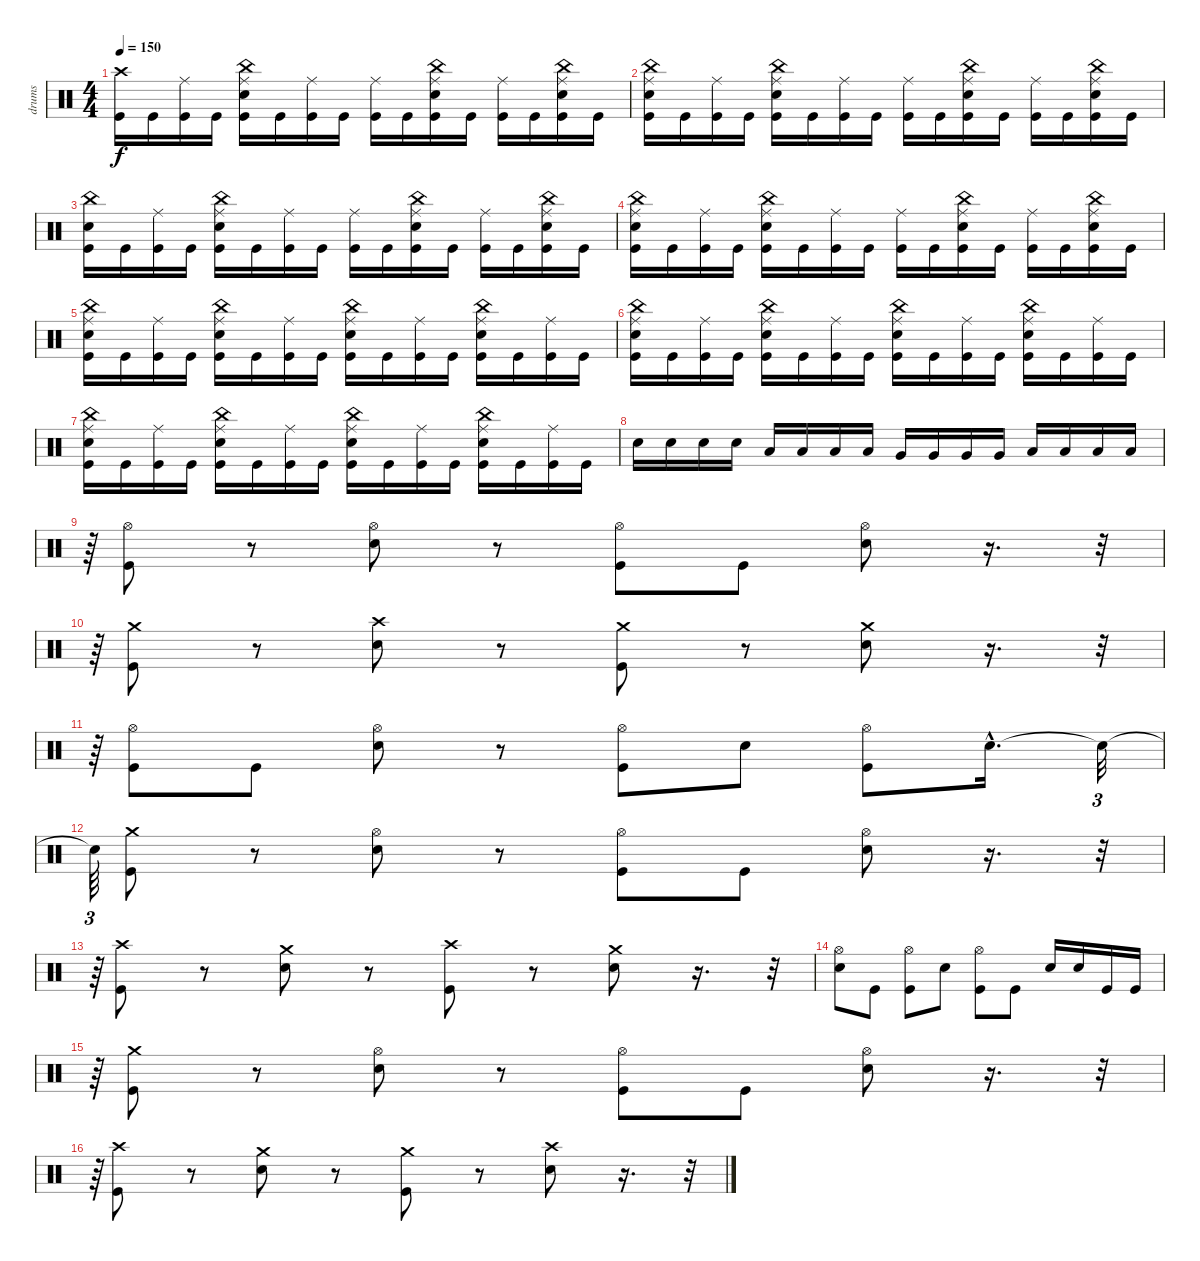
\track ("drums" "drums") {instrument percussion}
\staff {score}
\articulation defaults
\ts (4 4)
\tempo 150
\clef neutral
\ks c
("Crash high (hit)" "Kick (hit)").16{dy f} "Kick (hit)".16 ("Ride (middle)" "Kick (hit)").16 "Kick (hit)".16 ("Snare (hit) 2" "China (hit)" "Ride (middle)" "Kick (hit)").16 "Kick (hit)".16 ("Ride (middle)" "Kick (hit)").16 "Kick (hit)".16 ("Ride (middle)" "Kick (hit)").16 "Kick (hit)".16 ("China (hit)" "Ride (middle)" "Electric Snare (hit)" "Kick (hit)").16 "Kick (hit)".16 ("Ride (middle)" "Kick (hit)").16 "Kick (hit)".16 ("China (hit)" "Ride (middle)" "Electric Snare (hit)" "Kick (hit)").16 "Kick (hit)".16 |
("China (hit)" "Electric Snare (hit)" "Ride (middle)" "Kick (hit)").16 "Kick (hit)".16 ("Ride (middle)" "Kick (hit)").16 "Kick (hit)".16 ("China (hit)" "Snare (hit) 2" "Ride (middle)" "Kick (hit)").16 "Kick (hit)".16 ("Ride (middle)" "Kick (hit)").16 "Kick (hit)".16 ("Ride (middle)" "Kick (hit)").16 "Kick (hit)".16 ("China (hit)" "Ride (middle)" "Electric Snare (hit)" "Kick (hit)").16 "Kick (hit)".16 ("Ride (middle)" "Kick (hit)").16 "Kick (hit)".16 ("China (hit)" "Ride (middle)" "Electric Snare (hit)" "Kick (hit)").16 "Kick (hit)".16 |
("China (hit)" "Snare (hit) 2" "Kick (hit)").16 "Kick (hit)".16 ("Ride (middle)" "Kick (hit)").16 "Kick (hit)".16 ("Snare (hit) 2" "China (hit)" "Ride (middle)" "Kick (hit)").16 "Kick (hit)".16 ("Ride (middle)" "Kick (hit)").16 "Kick (hit)".16 ("Ride (middle)" "Kick (hit)").16 "Kick (hit)".16 ("China (hit)" "Ride (middle)" "Electric Snare (hit)" "Kick (hit)").16 "Kick (hit)".16 ("Ride (middle)" "Kick (hit)").16 "Kick (hit)".16 ("China (hit)" "Ride (middle)" "Electric Snare (hit)" "Kick (hit)").16 "Kick (hit)".16 |
("China (hit)" "Electric Snare (hit)" "Ride (middle)" "Kick (hit)").16 "Kick (hit)".16 ("Ride (middle)" "Kick (hit)").16 "Kick (hit)".16 ("China (hit)" "Snare (hit) 2" "Ride (middle)" "Kick (hit)").16 "Kick (hit)".16 ("Ride (middle)" "Kick (hit)").16 "Kick (hit)".16 ("Ride (middle)" "Kick (hit)").16 "Kick (hit)".16 ("China (hit)" "Ride (middle)" "Electric Snare (hit)" "Kick (hit)").16 "Kick (hit)".16 ("Ride (middle)" "Kick (hit)").16 "Kick (hit)".16 ("China (hit)" "Ride (middle)" "Electric Snare (hit)" "Kick (hit)").16 "Kick (hit)".16 |
("China (hit)" "Electric Snare (hit)" "Ride (middle)" "Kick (hit)").16 "Kick (hit)".16 ("Ride (middle)" "Kick (hit)").16 "Kick (hit)".16 ("China (hit)" "Snare (hit) 2" "Ride (middle)" "Kick (hit)").16 "Kick (hit)".16 ("Ride (middle)" "Kick (hit)").16 "Kick (hit)".16 ("China (hit)" "Electric Snare (hit)" "Ride (middle)" "Kick (hit)").16 "Kick (hit)".16 ("Ride (middle)" "Kick (hit)").16 "Kick (hit)".16 ("Electric Snare (hit)" "China (hit)" "Ride (middle)" "Kick (hit)").16 "Kick (hit)".16 ("Ride (middle)" "Kick (hit)").16 "Kick (hit)".16 |
("China (hit)" "Electric Snare (hit)" "Ride (middle)" "Kick (hit)").16 "Kick (hit)".16 ("Ride (middle)" "Kick (hit)").16 "Kick (hit)".16 ("China (hit)" "Snare (hit) 2" "Ride (middle)" "Kick (hit)").16 "Kick (hit)".16 ("Ride (middle)" "Kick (hit)").16 "Kick (hit)".16 ("China (hit)" "Electric Snare (hit)" "Ride (middle)" "Kick (hit)").16 "Kick (hit)".16 ("Ride (middle)" "Kick (hit)").16 "Kick (hit)".16 ("Electric Snare (hit)" "China (hit)" "Ride (middle)" "Kick (hit)").16 "Kick (hit)".16 ("Ride (middle)" "Kick (hit)").16 "Kick (hit)".16 |
("China (hit)" "Electric Snare (hit)" "Ride (middle)" "Kick (hit)").16 "Kick (hit)".16 ("Ride (middle)" "Kick (hit)").16 "Kick (hit)".16 ("China (hit)" "Snare (hit) 2" "Ride (middle)" "Kick (hit)").16 "Kick (hit)".16 ("Ride (middle)" "Kick (hit)").16 "Kick (hit)".16 ("China (hit)" "Electric Snare (hit)" "Ride (middle)" "Kick (hit)").16 "Kick (hit)".16 ("Ride (middle)" "Kick (hit)").16 "Kick (hit)".16 ("Electric Snare (hit)" "China (hit)" "Ride (middle)" "Kick (hit)").16 "Kick (hit)".16 ("Ride (middle)" "Kick (hit)").16 "Kick (hit)".16 |
"Electric Snare (hit)".16 "Electric Snare (hit)".16 "Electric Snare (hit)".16 "Electric Snare (hit)".16 "Low Tom (hit)".16 "Low Tom (hit)".16 "Low Tom (hit)".16 "Low Tom (hit)".16 "Very Low Tom (hit)".16 "Very Low Tom (hit)".16 "Very Low Tom (hit)".16 "Very Low Tom (hit)".16 "Low Floor Tom (hit)".16 "Low Floor Tom (hit)".16 "Low Floor Tom (hit)".16 "Low Floor Tom (hit)".16 |
r.64{tu (3 2)} ("Hi-Hat (open)" "Kick (hit)").8 r.8 ("Hi-Hat (open)" "Electric Snare (hit)").8 r.8 ("Hi-Hat (open)" "Kick (hit)").8 "Kick (hit)".8 ("Hi-Hat (open)" "Electric Snare (hit)").8 r.16{d} r.32{tu (3 2)} |
r.64{tu (3 2)} ("Crash medium (hit)" "Kick (hit)").8 r.8 ("Crash high (hit)" "Electric Snare (hit)").8 r.8 ("Crash medium (hit)" "Kick (hit)").8 r.8 ("Crash medium (hit)" "Electric Snare (hit)").8 r.16{d} r.32{tu (3 2)} |
r.64{tu (3 2)} ("Hi-Hat (open)" "Kick (hit)").8 "Kick (hit)".8 ("Hi-Hat (open)" "Electric Snare (hit)").8 r.8 ("Hi-Hat (open)" "Kick (hit)").8 "Electric Snare (hit)".8 ("Hi-Hat (open)" "Kick (hit)").8 "Electric Snare (hit)"{hac}.16{d} "Snare (hit)"{t}.32{tu (3 2)} |
"Snare (hit)"{t}.64{tu (3 2)} ("Crash medium (hit)" "Kick (hit)").8 r.8 ("Hi-Hat (open)" "Electric Snare (hit)").8 r.8 ("Hi-Hat (open)" "Kick (hit)").8 "Kick (hit)".8 ("Hi-Hat (open)" "Electric Snare (hit)").8 r.16{d} r.32{tu (3 2)} |
r.64{tu (3 2)} ("Crash high (hit)" "Kick (hit)").8 r.8 ("Crash medium (hit)" "Electric Snare (hit)").8 r.8 ("Crash high (hit)" "Kick (hit)").8 r.8 ("Crash medium (hit)" "Electric Snare (hit)").8 r.16{d} r.32{tu (3 2)} |
("Hi-Hat (open)" "Electric Snare (hit)").8 "Kick (hit)".8 ("Hi-Hat (open)" "Kick (hit)").8 "Electric Snare (hit)".8 ("Hi-Hat (open)" "Kick (hit)").8 "Kick (hit)".8 "Electric Snare (hit)".16 "Electric Snare (hit)".16 "Kick (hit)".16 "Kick (hit)".16 |
r.64{tu (3 2)} ("Crash medium (hit)" "Kick (hit)").8 r.8 ("Hi-Hat (open)" "Electric Snare (hit)").8 r.8 ("Hi-Hat (open)" "Kick (hit)").8 "Kick (hit)".8 ("Hi-Hat (open)" "Electric Snare (hit)").8 r.16{d} r.32{tu (3 2)} |
r.64{tu (3 2)} ("Crash high (hit)" "Kick (hit)").8 r.8 ("Crash medium (hit)" "Electric Snare (hit)").8 r.8 ("Crash medium (hit)" "Kick (hit)").8 r.8 ("Crash high (hit)" "Electric Snare (hit)").8 r.16{d} r.32{tu (3 2)}
